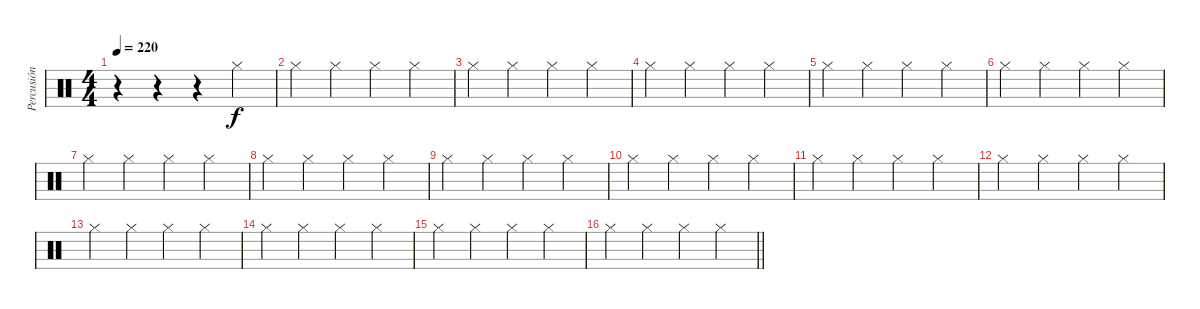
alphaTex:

\track ("Percusión" "Percusión") {instrument percussion}
\staff {score}
\articulation defaults
\ts (4 4)
\tempo 220
\clef neutral
\ks c
r.4{dy f} r.4 r.4 "Hi-Hat (closed)".4 |
"Hi-Hat (closed)".4 "Hi-Hat (closed)".4 "Hi-Hat (closed)".4 "Hi-Hat (closed)".4 |
"Hi-Hat (closed)".4 "Hi-Hat (closed)".4 "Hi-Hat (closed)".4 "Hi-Hat (closed)".4 |
"Hi-Hat (closed)".4 "Hi-Hat (closed)".4 "Hi-Hat (closed)".4 "Hi-Hat (closed)".4 |
"Hi-Hat (closed)".4 "Hi-Hat (closed)".4 "Hi-Hat (closed)".4 "Hi-Hat (closed)".4 |
"Hi-Hat (closed)".4 "Hi-Hat (closed)".4 "Hi-Hat (closed)".4 "Hi-Hat (closed)".4 |
"Hi-Hat (closed)".4 "Hi-Hat (closed)".4 "Hi-Hat (closed)".4 "Hi-Hat (closed)".4 |
"Hi-Hat (closed)".4 "Hi-Hat (closed)".4 "Hi-Hat (closed)".4 "Hi-Hat (closed)".4 |
"Hi-Hat (closed)".4 "Hi-Hat (closed)".4 "Hi-Hat (closed)".4 "Hi-Hat (closed)".4 |
"Hi-Hat (closed)".4 "Hi-Hat (closed)".4 "Hi-Hat (closed)".4 "Hi-Hat (closed)".4 |
"Hi-Hat (closed)".4 "Hi-Hat (closed)".4 "Hi-Hat (closed)".4 "Hi-Hat (closed)".4 |
"Hi-Hat (closed)".4 "Hi-Hat (closed)".4 "Hi-Hat (closed)".4 "Hi-Hat (closed)".4 |
"Hi-Hat (closed)".4 "Hi-Hat (closed)".4 "Hi-Hat (closed)".4 "Hi-Hat (closed)".4 |
"Hi-Hat (closed)".4 "Hi-Hat (closed)".4 "Hi-Hat (closed)".4 "Hi-Hat (closed)".4 |
"Hi-Hat (closed)".4 "Hi-Hat (closed)".4 "Hi-Hat (closed)".4 "Hi-Hat (closed)".4 |
\barLineRight lightlight "Hi-Hat (closed)".4 "Hi-Hat (closed)".4 "Hi-Hat (closed)".4 "Hi-Hat (closed)".4
